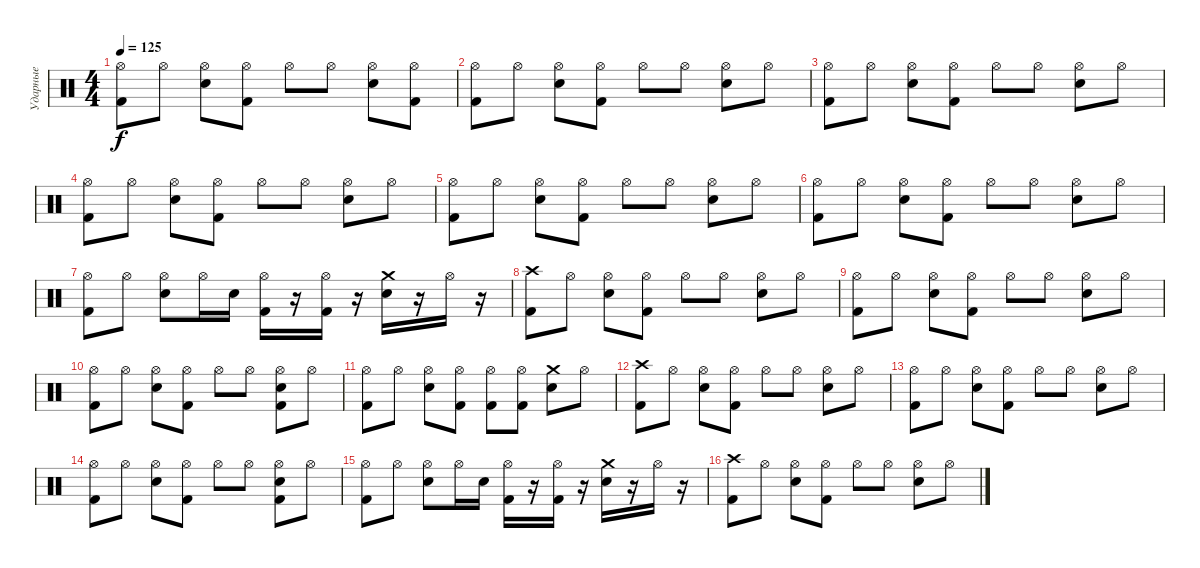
\track ("Ударные" "Ударные") {instrument percussion}
\staff {score}
\articulation defaults
\ts (4 4)
\tempo 125
\clef neutral
\ks c
("Hi-Hat (open)" "Kick (hit) 2").8{dy f} "Hi-Hat (open)".8 ("Hi-Hat (open)" "Snare (hit) 2").8 ("Hi-Hat (open)" "Kick (hit) 2").8 "Hi-Hat (open)".8 "Hi-Hat (open)".8 ("Hi-Hat (open)" "Snare (hit) 2").8 ("Hi-Hat (open)" "Kick (hit) 2").8 |
("Hi-Hat (open)" "Kick (hit) 2").8 "Hi-Hat (open)".8 ("Hi-Hat (open)" "Snare (hit) 2").8 ("Hi-Hat (open)" "Kick (hit) 2").8 "Hi-Hat (open)".8 "Hi-Hat (open)".8 ("Hi-Hat (open)" "Snare (hit) 2").8 "Hi-Hat (open)".8 |
("Hi-Hat (open)" "Kick (hit) 2").8 "Hi-Hat (open)".8 ("Hi-Hat (open)" "Snare (hit) 2").8 ("Hi-Hat (open)" "Kick (hit) 2").8 "Hi-Hat (open)".8 "Hi-Hat (open)".8 ("Hi-Hat (open)" "Snare (hit) 2").8 "Hi-Hat (open)".8 |
("Hi-Hat (open)" "Kick (hit) 2").8 "Hi-Hat (open)".8 ("Hi-Hat (open)" "Snare (hit) 2").8 ("Hi-Hat (open)" "Kick (hit) 2").8 "Hi-Hat (open)".8 "Hi-Hat (open)".8 ("Hi-Hat (open)" "Snare (hit) 2").8 "Hi-Hat (open)".8 |
("Hi-Hat (open)" "Kick (hit) 2").8 "Hi-Hat (open)".8 ("Hi-Hat (open)" "Snare (hit) 2").8 ("Hi-Hat (open)" "Kick (hit) 2").8 "Hi-Hat (open)".8 "Hi-Hat (open)".8 ("Hi-Hat (open)" "Snare (hit) 2").8 "Hi-Hat (open)".8 |
("Hi-Hat (open)" "Kick (hit) 2").8 "Hi-Hat (open)".8 ("Hi-Hat (open)" "Snare (hit) 2").8 ("Hi-Hat (open)" "Kick (hit) 2").8 "Hi-Hat (open)".8 "Hi-Hat (open)".8 ("Hi-Hat (open)" "Snare (hit) 2").8 "Hi-Hat (open)".8 |
("Hi-Hat (open)" "Kick (hit) 2").8 "Hi-Hat (open)".8 ("Hi-Hat (open)" "Snare (hit) 2").8 "Hi-Hat (open)".16 "Snare (hit) 2".16 ("Hi-Hat (open)" "Kick (hit) 2").16 r.16 ("Hi-Hat (open)" "Kick (hit) 2").16 r.16 ("Crash medium (hit)" "Snare (hit) 2").16 r.16 "Hi-Hat (open)".16 r.16 |
("Crash high (hit)" "Kick (hit) 2").8 "Hi-Hat (open)".8 ("Hi-Hat (open)" "Snare (hit) 2").8 ("Hi-Hat (open)" "Kick (hit) 2").8 "Hi-Hat (open)".8 "Hi-Hat (open)".8 ("Hi-Hat (open)" "Snare (hit) 2").8 "Hi-Hat (open)".8 |
("Hi-Hat (open)" "Kick (hit) 2").8 "Hi-Hat (open)".8 ("Hi-Hat (open)" "Snare (hit) 2").8 ("Hi-Hat (open)" "Kick (hit) 2").8 "Hi-Hat (open)".8 "Hi-Hat (open)".8 ("Hi-Hat (open)" "Snare (hit) 2").8 "Hi-Hat (open)".8 |
("Hi-Hat (open)" "Kick (hit) 2").8 "Hi-Hat (open)".8 ("Hi-Hat (open)" "Snare (hit) 2").8 ("Hi-Hat (open)" "Kick (hit) 2").8 "Hi-Hat (open)".8 "Hi-Hat (open)".8 ("Hi-Hat (open)" "Snare (hit) 2" "Kick (hit) 2").8 "Hi-Hat (open)".8 |
("Hi-Hat (open)" "Kick (hit) 2").8 "Hi-Hat (open)".8 ("Hi-Hat (open)" "Snare (hit) 2").8 ("Hi-Hat (open)" "Kick (hit) 2").8 ("Hi-Hat (open)" "Kick (hit) 2").8 ("Hi-Hat (open)" "Kick (hit) 2").8 ("Crash medium (hit)" "Snare (hit) 2").8 "Hi-Hat (open)".8 |
("Crash high (hit)" "Kick (hit) 2").8 "Hi-Hat (open)".8 ("Hi-Hat (open)" "Snare (hit) 2").8 ("Hi-Hat (open)" "Kick (hit) 2").8 "Hi-Hat (open)".8 "Hi-Hat (open)".8 ("Hi-Hat (open)" "Snare (hit) 2").8 "Hi-Hat (open)".8 |
("Hi-Hat (open)" "Kick (hit) 2").8 "Hi-Hat (open)".8 ("Hi-Hat (open)" "Snare (hit) 2").8 ("Hi-Hat (open)" "Kick (hit) 2").8 "Hi-Hat (open)".8 "Hi-Hat (open)".8 ("Hi-Hat (open)" "Snare (hit) 2").8 "Hi-Hat (open)".8 |
("Hi-Hat (open)" "Kick (hit) 2").8 "Hi-Hat (open)".8 ("Hi-Hat (open)" "Snare (hit) 2").8 ("Hi-Hat (open)" "Kick (hit) 2").8 "Hi-Hat (open)".8 "Hi-Hat (open)".8 ("Hi-Hat (open)" "Snare (hit) 2" "Kick (hit) 2").8 "Hi-Hat (open)".8 |
("Hi-Hat (open)" "Kick (hit) 2").8 "Hi-Hat (open)".8 ("Hi-Hat (open)" "Snare (hit) 2").8 "Hi-Hat (open)".16 "Snare (hit) 2".16 ("Hi-Hat (open)" "Kick (hit) 2").16 r.16 ("Hi-Hat (open)" "Kick (hit) 2").16 r.16 ("Crash medium (hit)" "Snare (hit) 2").16 r.16 "Hi-Hat (open)".16 r.16 |
("Crash high (hit)" "Kick (hit) 2").8 "Hi-Hat (open)".8 ("Hi-Hat (open)" "Snare (hit) 2").8 ("Hi-Hat (open)" "Kick (hit) 2").8 "Hi-Hat (open)".8 "Hi-Hat (open)".8 ("Hi-Hat (open)" "Snare (hit) 2").8 "Hi-Hat (open)".8
